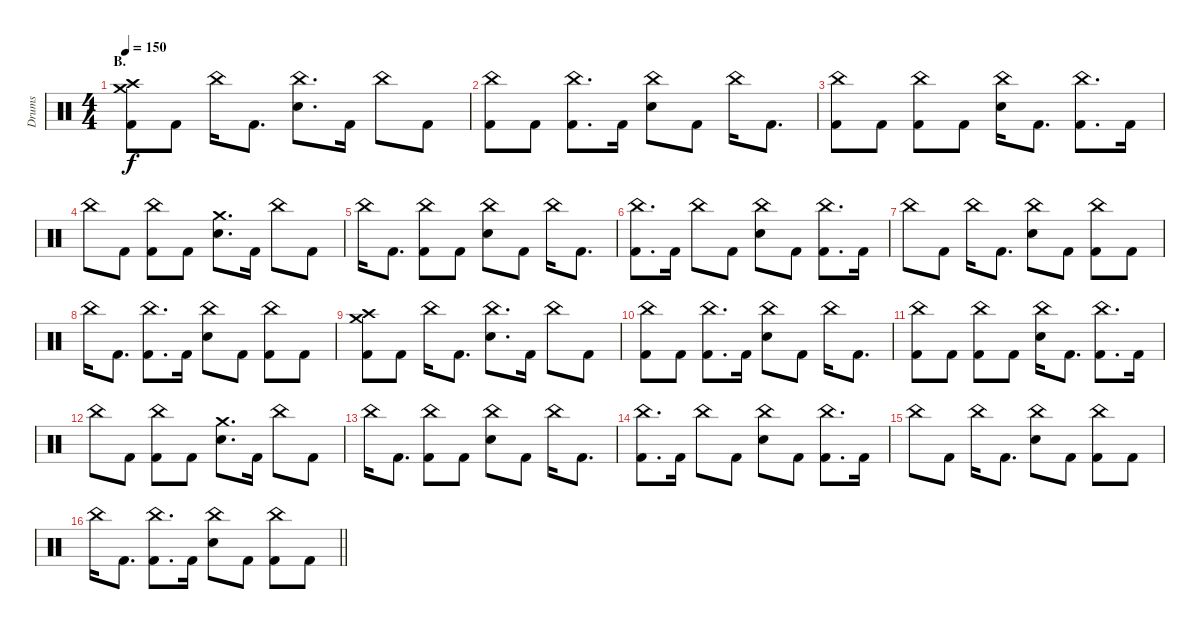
\track ("Drums" "Drums") {instrument percussion}
\staff {score}
\articulation defaults
\ts (4 4)
\section ("" "B.")
\tempo 150
\clef neutral
\ks c
("Crash medium (hit)" "Crash high (hit)" "Kick (hit) 2").8{dy f} "Kick (hit) 2".8 "China (hit)".16 "Kick (hit) 2".8{d} ("China (hit)" "Electric Snare (hit)").8{d} "Kick (hit) 2".16 "China (hit)".8 "Kick (hit) 2".8 |
("China (hit)" "Kick (hit) 2").8 "Kick (hit) 2".8 ("China (hit)" "Kick (hit) 2").8{d} "Kick (hit) 2".16 ("China (hit)" "Electric Snare (hit)").8 "Kick (hit) 2".8 "China (hit)".16 "Kick (hit) 2".8{d} |
("China (hit)" "Kick (hit) 2").8 "Kick (hit) 2".8 ("China (hit)" "Kick (hit) 2").8 "Kick (hit) 2".8 ("China (hit)" "Electric Snare (hit)").16 "Kick (hit) 2".8{d} ("China (hit)" "Kick (hit) 2").8{d} "Kick (hit) 2".16 |
"China (hit)".8 "Kick (hit) 2".8 ("China (hit)" "Kick (hit) 2").8 "Kick (hit) 2".8 ("Crash medium (hit)" "Electric Snare (hit)").8{d} "Kick (hit) 2".16 "China (hit)".8 "Kick (hit) 2".8 |
"China (hit)".16 "Kick (hit) 2".8{d} ("China (hit)" "Kick (hit) 2").8 "Kick (hit) 2".8 ("China (hit)" "Electric Snare (hit)").8 "Kick (hit) 2".8 "China (hit)".16 "Kick (hit) 2".8{d} |
("China (hit)" "Kick (hit) 2").8{d} "Kick (hit) 2".16 "China (hit)".8 "Kick (hit) 2".8 ("China (hit)" "Electric Snare (hit)").8 "Kick (hit) 2".8 ("China (hit)" "Kick (hit) 2").8{d} "Kick (hit) 2".16 |
"China (hit)".8 "Kick (hit) 2".8 "China (hit)".16 "Kick (hit) 2".8{d} ("China (hit)" "Electric Snare (hit)").8 "Kick (hit) 2".8 ("China (hit)" "Kick (hit) 2").8 "Kick (hit) 2".8 |
"China (hit)".16 "Kick (hit) 2".8{d} ("China (hit)" "Kick (hit) 2").8{d} "Kick (hit) 2".16 ("China (hit)" "Electric Snare (hit)").8 "Kick (hit) 2".8 ("China (hit)" "Kick (hit) 2").8 "Kick (hit) 2".8 |
("Crash medium (hit)" "Crash high (hit)" "Kick (hit) 2").8 "Kick (hit) 2".8 "China (hit)".16 "Kick (hit) 2".8{d} ("China (hit)" "Electric Snare (hit)").8{d} "Kick (hit) 2".16 "China (hit)".8 "Kick (hit) 2".8 |
("China (hit)" "Kick (hit) 2").8 "Kick (hit) 2".8 ("China (hit)" "Kick (hit) 2").8{d} "Kick (hit) 2".16 ("China (hit)" "Electric Snare (hit)").8 "Kick (hit) 2".8 "China (hit)".16 "Kick (hit) 2".8{d} |
("China (hit)" "Kick (hit) 2").8 "Kick (hit) 2".8 ("China (hit)" "Kick (hit) 2").8 "Kick (hit) 2".8 ("China (hit)" "Electric Snare (hit)").16 "Kick (hit) 2".8{d} ("China (hit)" "Kick (hit) 2").8{d} "Kick (hit) 2".16 |
"China (hit)".8 "Kick (hit) 2".8 ("China (hit)" "Kick (hit) 2").8 "Kick (hit) 2".8 ("Crash medium (hit)" "Electric Snare (hit)").8{d} "Kick (hit) 2".16 "China (hit)".8 "Kick (hit) 2".8 |
"China (hit)".16 "Kick (hit) 2".8{d} ("China (hit)" "Kick (hit) 2").8 "Kick (hit) 2".8 ("China (hit)" "Electric Snare (hit)").8 "Kick (hit) 2".8 "China (hit)".16 "Kick (hit) 2".8{d} |
("China (hit)" "Kick (hit) 2").8{d} "Kick (hit) 2".16 "China (hit)".8 "Kick (hit) 2".8 ("China (hit)" "Electric Snare (hit)").8 "Kick (hit) 2".8 ("China (hit)" "Kick (hit) 2").8{d} "Kick (hit) 2".16 |
"China (hit)".8 "Kick (hit) 2".8 "China (hit)".16 "Kick (hit) 2".8{d} ("China (hit)" "Electric Snare (hit)").8 "Kick (hit) 2".8 ("China (hit)" "Kick (hit) 2").8 "Kick (hit) 2".8 |
\barLineRight lightlight "China (hit)".16 "Kick (hit) 2".8{d}
("China (hit)" "Kick (hit) 2").8{d} "Kick (hit) 2".16 ("China (hit)" "Electric Snare (hit)").8 "Kick (hit) 2".8 ("China (hit)" "Kick (hit) 2").8 "Kick (hit) 2".8
